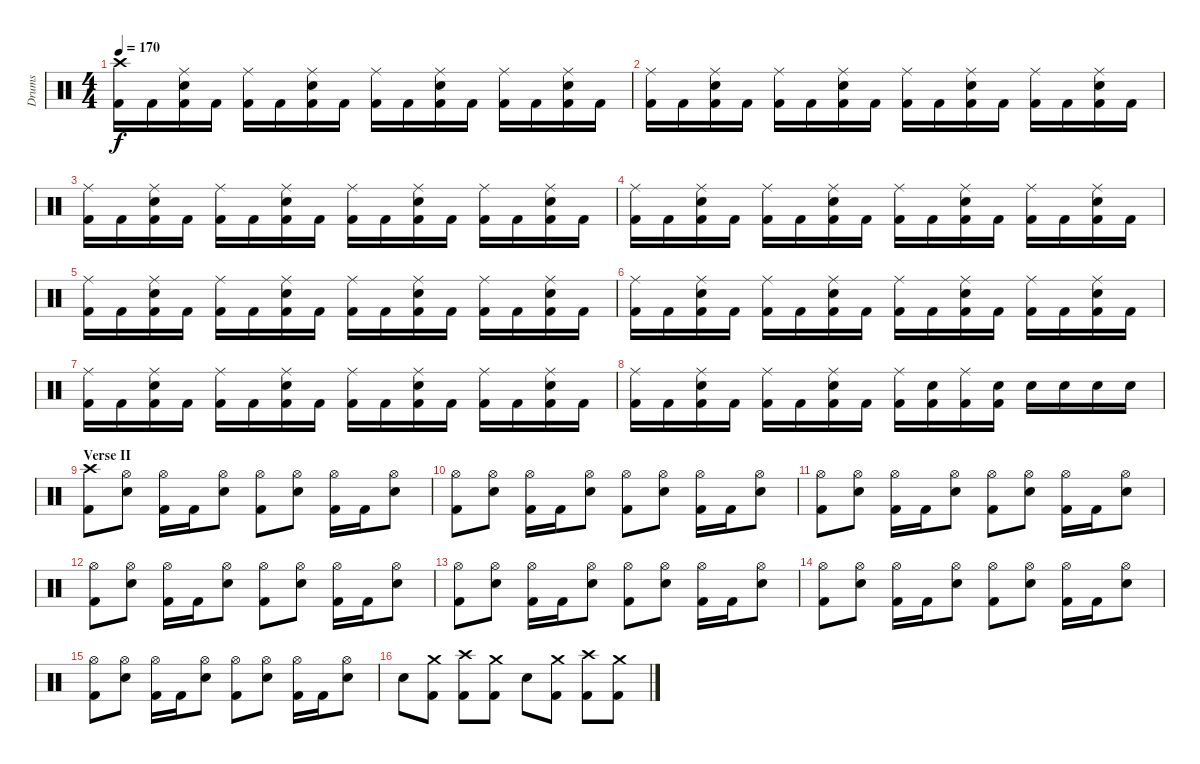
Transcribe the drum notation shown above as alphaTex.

\track ("Drums" "Drums") {instrument percussion}
\staff {score}
\articulation defaults
\ts (4 4)
\tempo 170
\clef neutral
\ks c
("Crash high (hit)" "Kick (hit) 2").16{dy f} "Kick (hit) 2".16 ("Ride (middle)" "Electric Snare (hit)" "Kick (hit) 2").16 "Kick (hit) 2".16 ("Ride (middle)" "Kick (hit) 2").16 "Kick (hit) 2".16 ("Ride (middle)" "Electric Snare (hit)" "Kick (hit) 2").16 "Kick (hit) 2".16 ("Ride (middle)" "Kick (hit) 2").16 "Kick (hit) 2".16 ("Ride (middle)" "Electric Snare (hit)" "Kick (hit) 2").16 "Kick (hit) 2".16 ("Ride (middle)" "Kick (hit) 2").16 "Kick (hit) 2".16 ("Ride (middle)" "Electric Snare (hit)" "Kick (hit) 2").16 "Kick (hit) 2".16 |
("Ride (middle)" "Kick (hit) 2").16 "Kick (hit) 2".16 ("Ride (middle)" "Electric Snare (hit)" "Kick (hit) 2").16 "Kick (hit) 2".16 ("Ride (middle)" "Kick (hit) 2").16 "Kick (hit) 2".16 ("Ride (middle)" "Electric Snare (hit)" "Kick (hit) 2").16 "Kick (hit) 2".16 ("Ride (middle)" "Kick (hit) 2").16 "Kick (hit) 2".16 ("Ride (middle)" "Electric Snare (hit)" "Kick (hit) 2").16 "Kick (hit) 2".16 ("Ride (middle)" "Kick (hit) 2").16 "Kick (hit) 2".16 ("Ride (middle)" "Electric Snare (hit)" "Kick (hit) 2").16 "Kick (hit) 2".16 |
("Ride (middle)" "Kick (hit) 2").16 "Kick (hit) 2".16 ("Ride (middle)" "Electric Snare (hit)" "Kick (hit) 2").16 "Kick (hit) 2".16 ("Ride (middle)" "Kick (hit) 2").16 "Kick (hit) 2".16 ("Ride (middle)" "Electric Snare (hit)" "Kick (hit) 2").16 "Kick (hit) 2".16 ("Ride (middle)" "Kick (hit) 2").16 "Kick (hit) 2".16 ("Ride (middle)" "Electric Snare (hit)" "Kick (hit) 2").16 "Kick (hit) 2".16 ("Ride (middle)" "Kick (hit) 2").16 "Kick (hit) 2".16 ("Ride (middle)" "Electric Snare (hit)" "Kick (hit) 2").16 "Kick (hit) 2".16 |
("Ride (middle)" "Kick (hit) 2").16 "Kick (hit) 2".16 ("Ride (middle)" "Electric Snare (hit)" "Kick (hit) 2").16 "Kick (hit) 2".16 ("Ride (middle)" "Kick (hit) 2").16 "Kick (hit) 2".16 ("Ride (middle)" "Electric Snare (hit)" "Kick (hit) 2").16 "Kick (hit) 2".16 ("Ride (middle)" "Kick (hit) 2").16 "Kick (hit) 2".16 ("Ride (middle)" "Electric Snare (hit)" "Kick (hit) 2").16 "Kick (hit) 2".16 ("Ride (middle)" "Kick (hit) 2").16 "Kick (hit) 2".16 ("Ride (middle)" "Electric Snare (hit)" "Kick (hit) 2").16 "Kick (hit) 2".16 |
("Ride (middle)" "Kick (hit) 2").16 "Kick (hit) 2".16 ("Ride (middle)" "Electric Snare (hit)" "Kick (hit) 2").16 "Kick (hit) 2".16 ("Ride (middle)" "Kick (hit) 2").16 "Kick (hit) 2".16 ("Ride (middle)" "Electric Snare (hit)" "Kick (hit) 2").16 "Kick (hit) 2".16 ("Ride (middle)" "Kick (hit) 2").16 "Kick (hit) 2".16 ("Ride (middle)" "Electric Snare (hit)" "Kick (hit) 2").16 "Kick (hit) 2".16 ("Ride (middle)" "Kick (hit) 2").16 "Kick (hit) 2".16 ("Ride (middle)" "Electric Snare (hit)" "Kick (hit) 2").16 "Kick (hit) 2".16 |
("Ride (middle)" "Kick (hit) 2").16 "Kick (hit) 2".16 ("Ride (middle)" "Electric Snare (hit)" "Kick (hit) 2").16 "Kick (hit) 2".16 ("Ride (middle)" "Kick (hit) 2").16 "Kick (hit) 2".16 ("Ride (middle)" "Electric Snare (hit)" "Kick (hit) 2").16 "Kick (hit) 2".16 ("Ride (middle)" "Kick (hit) 2").16 "Kick (hit) 2".16 ("Ride (middle)" "Electric Snare (hit)" "Kick (hit) 2").16 "Kick (hit) 2".16 ("Ride (middle)" "Kick (hit) 2").16 "Kick (hit) 2".16 ("Ride (middle)" "Electric Snare (hit)" "Kick (hit) 2").16 "Kick (hit) 2".16 |
("Ride (middle)" "Kick (hit) 2").16 "Kick (hit) 2".16 ("Ride (middle)" "Electric Snare (hit)" "Kick (hit) 2").16 "Kick (hit) 2".16 ("Ride (middle)" "Kick (hit) 2").16 "Kick (hit) 2".16 ("Ride (middle)" "Electric Snare (hit)" "Kick (hit) 2").16 "Kick (hit) 2".16 ("Ride (middle)" "Kick (hit) 2").16 "Kick (hit) 2".16 ("Ride (middle)" "Electric Snare (hit)" "Kick (hit) 2").16 "Kick (hit) 2".16 ("Ride (middle)" "Kick (hit) 2").16 "Kick (hit) 2".16 ("Ride (middle)" "Electric Snare (hit)" "Kick (hit) 2").16 "Kick (hit) 2".16 |
("Ride (middle)" "Kick (hit) 2").16 "Kick (hit) 2".16 ("Ride (middle)" "Electric Snare (hit)" "Kick (hit) 2").16 "Kick (hit) 2".16 ("Ride (middle)" "Kick (hit) 2").16 "Kick (hit) 2".16 ("Ride (middle)" "Electric Snare (hit)" "Kick (hit) 2").16 "Kick (hit) 2".16 ("Ride (middle)" "Kick (hit) 2").16 ("Electric Snare (hit)" "Kick (hit) 2").16 ("Ride (middle)" "Kick (hit) 2").16 ("Electric Snare (hit)" "Kick (hit) 2").16 "Electric Snare (hit)".16 "Electric Snare (hit)".16 "Electric Snare (hit)".16 "Electric Snare (hit)".16 |
\section ("" "Verse II")
("Crash high (hit)" "Kick (hit) 2").8 ("Hi-Hat (open)" "Electric Snare (hit)").8 ("Hi-Hat (open)" "Kick (hit) 2").16 "Kick (hit) 2".16 ("Hi-Hat (open)" "Electric Snare (hit)").8 ("Hi-Hat (open)" "Kick (hit) 2").8 ("Hi-Hat (open)" "Electric Snare (hit)").8 ("Hi-Hat (open)" "Kick (hit) 2").16 "Kick (hit) 2".16 ("Hi-Hat (open)" "Electric Snare (hit)").8 |
("Hi-Hat (open)" "Kick (hit) 2").8 ("Hi-Hat (open)" "Electric Snare (hit)").8 ("Hi-Hat (open)" "Kick (hit) 2").16 "Kick (hit) 2".16 ("Hi-Hat (open)" "Electric Snare (hit)").8 ("Hi-Hat (open)" "Kick (hit) 2").8 ("Hi-Hat (open)" "Electric Snare (hit)").8 ("Hi-Hat (open)" "Kick (hit) 2").16 "Kick (hit) 2".16 ("Hi-Hat (open)" "Electric Snare (hit)").8 |
("Hi-Hat (open)" "Kick (hit) 2").8 ("Hi-Hat (open)" "Electric Snare (hit)").8 ("Hi-Hat (open)" "Kick (hit) 2").16 "Kick (hit) 2".16 ("Hi-Hat (open)" "Electric Snare (hit)").8 ("Hi-Hat (open)" "Kick (hit) 2").8 ("Hi-Hat (open)" "Electric Snare (hit)").8 ("Hi-Hat (open)" "Kick (hit) 2").16 "Kick (hit) 2".16 ("Hi-Hat (open)" "Electric Snare (hit)").8 |
("Hi-Hat (open)" "Kick (hit) 2").8 ("Hi-Hat (open)" "Electric Snare (hit)").8 ("Hi-Hat (open)" "Kick (hit) 2").16 "Kick (hit) 2".16 ("Hi-Hat (open)" "Electric Snare (hit)").8 ("Hi-Hat (open)" "Kick (hit) 2").8 ("Hi-Hat (open)" "Electric Snare (hit)").8 ("Hi-Hat (open)" "Kick (hit) 2").16 "Kick (hit) 2".16 ("Hi-Hat (open)" "Electric Snare (hit)").8 |
("Hi-Hat (open)" "Kick (hit) 2").8 ("Hi-Hat (open)" "Electric Snare (hit)").8 ("Hi-Hat (open)" "Kick (hit) 2").16 "Kick (hit) 2".16 ("Hi-Hat (open)" "Electric Snare (hit)").8 ("Hi-Hat (open)" "Kick (hit) 2").8 ("Hi-Hat (open)" "Electric Snare (hit)").8 ("Hi-Hat (open)" "Kick (hit) 2").16 "Kick (hit) 2".16 ("Hi-Hat (open)" "Electric Snare (hit)").8 |
("Hi-Hat (open)" "Kick (hit) 2").8 ("Hi-Hat (open)" "Electric Snare (hit)").8 ("Hi-Hat (open)" "Kick (hit) 2").16 "Kick (hit) 2".16 ("Hi-Hat (open)" "Electric Snare (hit)").8 ("Hi-Hat (open)" "Kick (hit) 2").8 ("Hi-Hat (open)" "Electric Snare (hit)").8 ("Hi-Hat (open)" "Kick (hit) 2").16 "Kick (hit) 2".16 ("Hi-Hat (open)" "Electric Snare (hit)").8 |
("Hi-Hat (open)" "Kick (hit) 2").8 ("Hi-Hat (open)" "Electric Snare (hit)").8 ("Hi-Hat (open)" "Kick (hit) 2").16 "Kick (hit) 2".16 ("Hi-Hat (open)" "Electric Snare (hit)").8 ("Hi-Hat (open)" "Kick (hit) 2").8 ("Hi-Hat (open)" "Electric Snare (hit)").8 ("Hi-Hat (open)" "Kick (hit) 2").16 "Kick (hit) 2".16 ("Hi-Hat (open)" "Electric Snare (hit)").8 |
"Electric Snare (hit)".8 ("Crash medium (hit)" "Kick (hit) 2").8 ("Crash high (hit)" "Kick (hit) 2").8 ("Crash medium (hit)" "Kick (hit) 2").8 "Electric Snare (hit)".8 ("Crash medium (hit)" "Kick (hit) 2").8 ("Crash high (hit)" "Kick (hit) 2").8 ("Crash medium (hit)" "Kick (hit) 2").8
